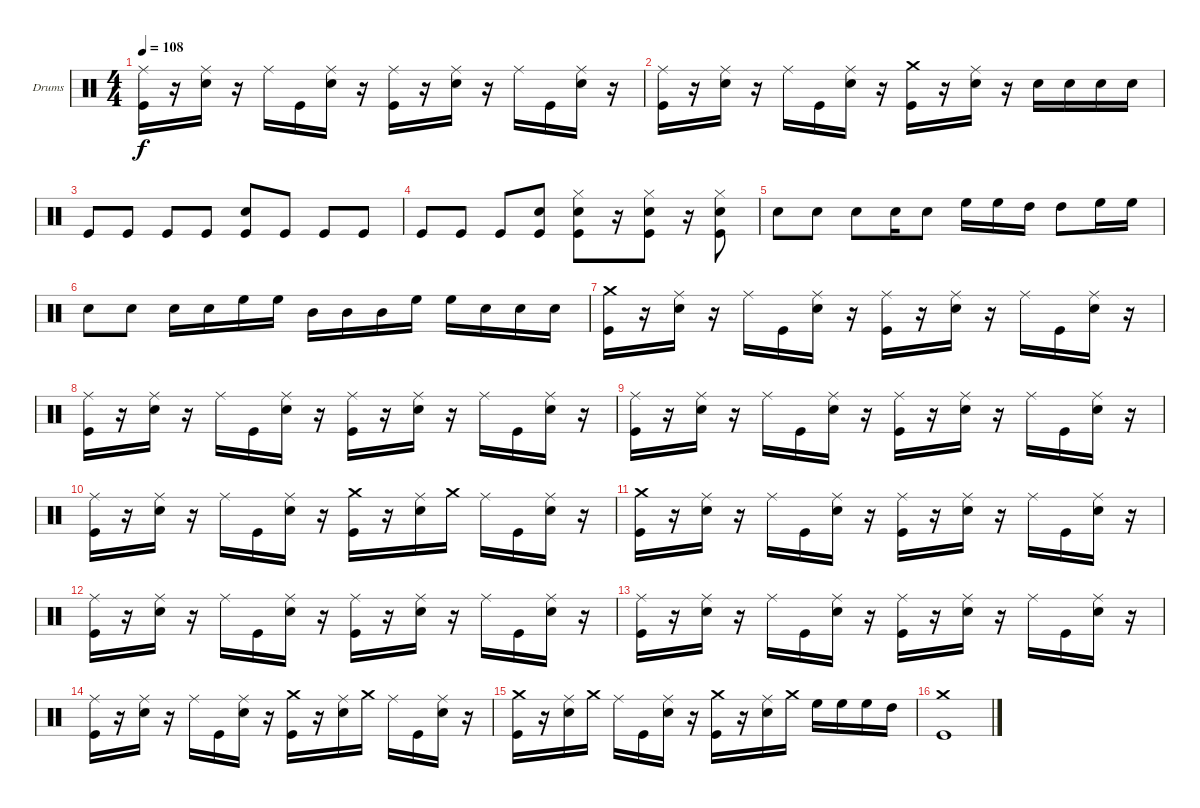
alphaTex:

\bracketExtendMode groupsimilarinstruments
\firstSystemTrackNameOrientation horizontal
\otherSystemsTrackNameOrientation horizontal
\track ("Drumkit" "Drums") {instrument percussion}
\staff {score}
\articulation defaults
\ts (4 4)
\tempo 108
\clef neutral
\ks c
("Kick (hit)" "Ride (middle)").16{dy f} r.16 ("Snare (hit) 2" "Ride (middle)").16 r.16 "Ride (middle)".16 "Kick (hit)".16 ("Snare (hit) 2" "Ride (middle)").16 r.16 ("Kick (hit)" "Ride (middle)").16 r.16 ("Snare (hit) 2" "Ride (middle)").16 r.16 "Ride (middle)".16 "Kick (hit)".16 ("Snare (hit) 2" "Ride (middle)").16 r.16 |
("Kick (hit)" "Ride (middle)").16 r.16 ("Snare (hit) 2" "Ride (middle)").16 r.16 "Ride (middle)".16 "Kick (hit)".16 ("Snare (hit) 2" "Ride (middle)").16 r.16 ("Kick (hit)" "Crash medium (hit)").16 r.16 ("Snare (hit) 2" "Ride (middle)").16 r.16 "Snare (hit) 2".16 "Snare (hit) 2".16 "Snare (hit) 2".16 "Snare (hit) 2".16 |
"Kick (hit)".8 "Kick (hit)".8 "Kick (hit)".8 "Kick (hit)".8 ("Snare (hit) 2" "Kick (hit)").8 "Kick (hit)".8 "Kick (hit)".8 "Kick (hit)".8 |
"Kick (hit)".8 "Kick (hit)".8 "Kick (hit)".8 ("Snare (hit) 2" "Kick (hit)").8 ("Snare (hit) 2" "Kick (hit)" "Hi-Hat (closed)").8 r.16 ("Snare (hit) 2" "Kick (hit)" "Hi-Hat (closed)").8 r.16 ("Snare (hit) 2" "Kick (hit)" "Hi-Hat (closed)").8 |
"Snare (hit) 2".8 "Snare (hit) 2".8 "Snare (hit) 2".8 "Snare (hit) 2".16 "Snare (hit) 2".8 "High Floor Tom (hit)".16 "High Floor Tom (hit)".16 "High Tom (hit)".16 "High Tom (hit)".8 "High Floor Tom (hit)".16 "High Floor Tom (hit)".16 |
"Snare (hit) 2".8 "Snare (hit) 2".8 "Snare (hit) 2".16 "Snare (hit) 2".16 "High Floor Tom (hit)".16 "High Floor Tom (hit)".16 "Mid Tom (hit)".16 "Mid Tom (hit)".16 "Mid Tom (hit)".16 "High Floor Tom (hit)".16 "High Floor Tom (hit)".16 "Snare (hit) 2".16 "Snare (hit) 2".16 "Snare (hit) 2".16 |
("Kick (hit)" "Crash medium (hit)").16 r.16 ("Snare (hit) 2" "Ride (middle)").16 r.16 "Ride (middle)".16 "Kick (hit)".16 ("Snare (hit) 2" "Ride (middle)").16 r.16 ("Kick (hit)" "Ride (middle)").16 r.16 ("Snare (hit) 2" "Ride (middle)").16 r.16 "Ride (middle)".16 "Kick (hit)".16 ("Snare (hit) 2" "Ride (middle)").16 r.16 |
("Kick (hit)" "Ride (middle)").16 r.16 ("Snare (hit) 2" "Ride (middle)").16 r.16 "Ride (middle)".16 "Kick (hit)".16 ("Snare (hit) 2" "Ride (middle)").16 r.16 ("Kick (hit)" "Ride (middle)").16 r.16 ("Snare (hit) 2" "Ride (middle)").16 r.16 "Ride (middle)".16 "Kick (hit)".16 ("Snare (hit) 2" "Ride (middle)").16 r.16 |
("Kick (hit)" "Ride (middle)").16 r.16 ("Snare (hit) 2" "Ride (middle)").16 r.16 "Ride (middle)".16 "Kick (hit)".16 ("Snare (hit) 2" "Ride (middle)").16 r.16 ("Kick (hit)" "Ride (middle)").16 r.16 ("Snare (hit) 2" "Ride (middle)").16 r.16 "Ride (middle)".16 "Kick (hit)".16 ("Snare (hit) 2" "Ride (middle)").16 r.16 |
("Kick (hit)" "Ride (middle)").16 r.16 ("Snare (hit) 2" "Ride (middle)").16 r.16 "Ride (middle)".16 "Kick (hit)".16 ("Snare (hit) 2" "Ride (middle)").16 r.16 ("Kick (hit)" "Crash medium (hit)").16 r.16 ("Snare (hit) 2" "Ride (middle)").16 "Crash medium (hit)".16 "Ride (middle)".16 "Kick (hit)".16 ("Snare (hit) 2" "Ride (middle)").16 r.16 |
("Kick (hit)" "Crash medium (hit)").16 r.16 ("Snare (hit) 2" "Ride (middle)").16 r.16 "Ride (middle)".16 "Kick (hit)".16 ("Snare (hit) 2" "Ride (middle)").16 r.16 ("Kick (hit)" "Ride (middle)").16 r.16 ("Snare (hit) 2" "Ride (middle)").16 r.16 "Ride (middle)".16 "Kick (hit)".16 ("Snare (hit) 2" "Ride (middle)").16 r.16 |
("Kick (hit)" "Ride (middle)").16 r.16 ("Snare (hit) 2" "Ride (middle)").16 r.16 "Ride (middle)".16 "Kick (hit)".16 ("Snare (hit) 2" "Ride (middle)").16 r.16 ("Kick (hit)" "Ride (middle)").16 r.16 ("Snare (hit) 2" "Ride (middle)").16 r.16 "Ride (middle)".16 "Kick (hit)".16 ("Snare (hit) 2" "Ride (middle)").16 r.16 |
("Kick (hit)" "Ride (middle)").16 r.16 ("Snare (hit) 2" "Ride (middle)").16 r.16 "Ride (middle)".16 "Kick (hit)".16 ("Snare (hit) 2" "Ride (middle)").16 r.16 ("Kick (hit)" "Ride (middle)").16 r.16 ("Snare (hit) 2" "Ride (middle)").16 r.16 "Ride (middle)".16 "Kick (hit)".16 ("Snare (hit) 2" "Ride (middle)").16 r.16 |
("Kick (hit)" "Ride (middle)").16 r.16 ("Snare (hit) 2" "Ride (middle)").16 r.16 "Ride (middle)".16 "Kick (hit)".16 ("Snare (hit) 2" "Ride (middle)").16 r.16 ("Kick (hit)" "Crash medium (hit)").16 r.16 ("Snare (hit) 2" "Ride (middle)").16 "Crash medium (hit)".16 "Ride (middle)".16 "Kick (hit)".16 ("Snare (hit) 2" "Ride (middle)").16 r.16 |
("Kick (hit)" "Crash medium (hit)").16 r.16 ("Snare (hit) 2" "Ride (middle)").16 "Crash medium (hit)".16 "Ride (middle)".16 "Kick (hit)".16 ("Snare (hit) 2" "Ride (middle)").16 r.16 ("Kick (hit)" "Crash medium (hit)").16 r.16 ("Snare (hit) 2" "Ride (middle)").16 "Crash medium (hit)".16 "High Floor Tom (hit)".16 "High Floor Tom (hit)".16 "High Floor Tom (hit)".16 "High Tom (hit)".16 |
("Kick (hit)" "Crash medium (hit)").1
